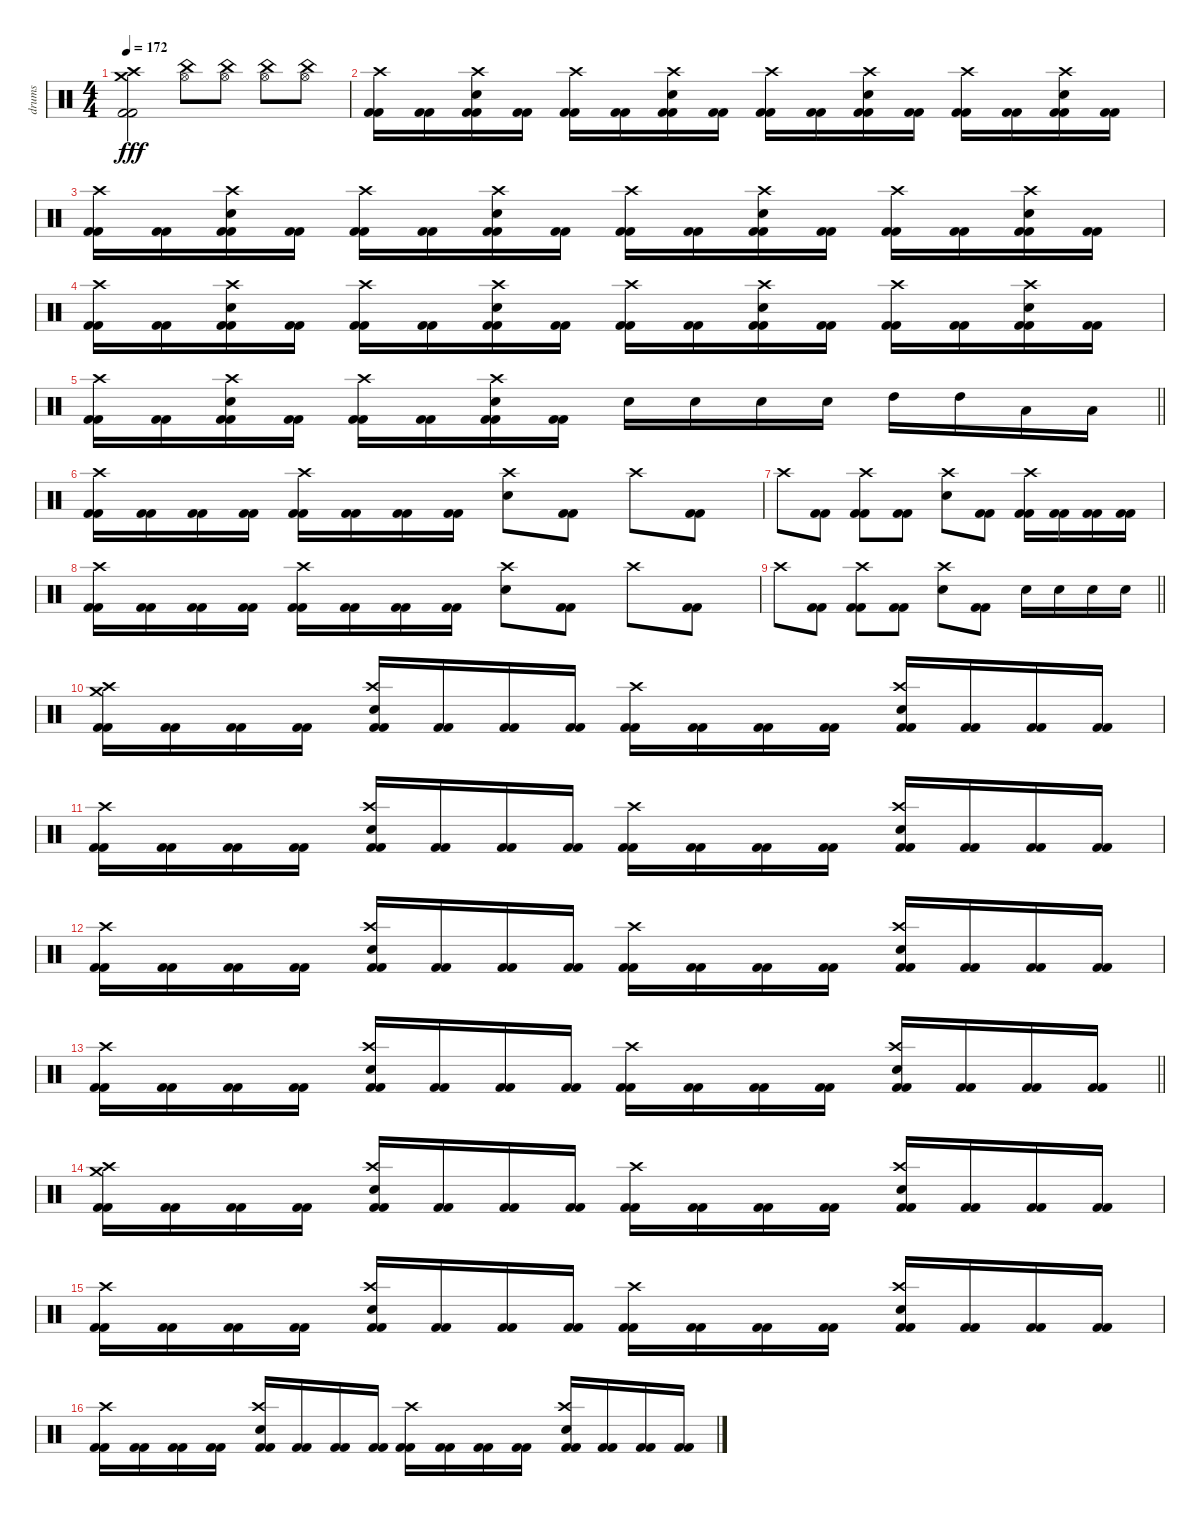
\track ("drums" "drums") {instrument percussion}
\staff {score}
\articulation defaults
\ts (4 4)
\tempo 172
\clef neutral
\ks c
("Kick (hit) 2" "Kick (hit) 2" "Crash medium (hit)" "Crash high (hit)").2{dy fff} ("Hi-Hat (open)" "China (hit)").8 ("Hi-Hat (open)" "China (hit)").8 ("Hi-Hat (open)" "China (hit)").8 ("Hi-Hat (open)" "China (hit)").8 |
("Kick (hit) 2" "Kick (hit) 2" "Crash high (hit)").16 ("Kick (hit) 2" "Kick (hit) 2").16 ("Kick (hit) 2" "Kick (hit) 2" "Electric Snare (hit)" "Crash high (hit)").16 ("Kick (hit) 2" "Kick (hit) 2").16 ("Kick (hit) 2" "Kick (hit) 2" "Crash high (hit)").16 ("Kick (hit) 2" "Kick (hit) 2").16 ("Kick (hit) 2" "Kick (hit) 2" "Electric Snare (hit)" "Crash high (hit)").16 ("Kick (hit) 2" "Kick (hit) 2").16 ("Kick (hit) 2" "Kick (hit) 2" "Crash high (hit)").16 ("Kick (hit) 2" "Kick (hit) 2").16 ("Kick (hit) 2" "Kick (hit) 2" "Electric Snare (hit)" "Crash high (hit)").16 ("Kick (hit) 2" "Kick (hit) 2").16 ("Kick (hit) 2" "Kick (hit) 2" "Crash high (hit)").16 ("Kick (hit) 2" "Kick (hit) 2").16 ("Kick (hit) 2" "Kick (hit) 2" "Electric Snare (hit)" "Crash high (hit)").16 ("Kick (hit) 2" "Kick (hit) 2").16 |
("Kick (hit) 2" "Kick (hit) 2" "Crash high (hit)").16 ("Kick (hit) 2" "Kick (hit) 2").16 ("Kick (hit) 2" "Kick (hit) 2" "Electric Snare (hit)" "Crash high (hit)").16 ("Kick (hit) 2" "Kick (hit) 2").16 ("Kick (hit) 2" "Kick (hit) 2" "Crash high (hit)").16 ("Kick (hit) 2" "Kick (hit) 2").16 ("Kick (hit) 2" "Kick (hit) 2" "Electric Snare (hit)" "Crash high (hit)").16 ("Kick (hit) 2" "Kick (hit) 2").16 ("Kick (hit) 2" "Kick (hit) 2" "Crash high (hit)").16 ("Kick (hit) 2" "Kick (hit) 2").16 ("Kick (hit) 2" "Kick (hit) 2" "Electric Snare (hit)" "Crash high (hit)").16 ("Kick (hit) 2" "Kick (hit) 2").16 ("Kick (hit) 2" "Kick (hit) 2" "Crash high (hit)").16 ("Kick (hit) 2" "Kick (hit) 2").16 ("Kick (hit) 2" "Kick (hit) 2" "Electric Snare (hit)" "Crash high (hit)").16 ("Kick (hit) 2" "Kick (hit) 2").16 |
("Kick (hit) 2" "Kick (hit) 2" "Crash high (hit)").16 ("Kick (hit) 2" "Kick (hit) 2").16 ("Kick (hit) 2" "Kick (hit) 2" "Electric Snare (hit)" "Crash high (hit)").16 ("Kick (hit) 2" "Kick (hit) 2").16 ("Kick (hit) 2" "Kick (hit) 2" "Crash high (hit)").16 ("Kick (hit) 2" "Kick (hit) 2").16 ("Kick (hit) 2" "Kick (hit) 2" "Electric Snare (hit)" "Crash high (hit)").16 ("Kick (hit) 2" "Kick (hit) 2").16 ("Kick (hit) 2" "Kick (hit) 2" "Crash high (hit)").16 ("Kick (hit) 2" "Kick (hit) 2").16 ("Kick (hit) 2" "Kick (hit) 2" "Electric Snare (hit)" "Crash high (hit)").16 ("Kick (hit) 2" "Kick (hit) 2").16 ("Kick (hit) 2" "Kick (hit) 2" "Crash high (hit)").16 ("Kick (hit) 2" "Kick (hit) 2").16 ("Kick (hit) 2" "Kick (hit) 2" "Electric Snare (hit)" "Crash high (hit)").16 ("Kick (hit) 2" "Kick (hit) 2").16 |
\barLineRight lightlight
("Kick (hit) 2" "Kick (hit) 2" "Crash high (hit)").16 ("Kick (hit) 2" "Kick (hit) 2").16 ("Kick (hit) 2" "Kick (hit) 2" "Electric Snare (hit)" "Crash high (hit)").16 ("Kick (hit) 2" "Kick (hit) 2").16 ("Kick (hit) 2" "Kick (hit) 2" "Crash high (hit)").16 ("Kick (hit) 2" "Kick (hit) 2").16 ("Kick (hit) 2" "Kick (hit) 2" "Electric Snare (hit)" "Crash high (hit)").16 ("Kick (hit) 2" "Kick (hit) 2").16 "Electric Snare (hit)".16 "Electric Snare (hit)".16 "Electric Snare (hit)".16 "Electric Snare (hit)".16 "High Tom (hit)".16 "High Tom (hit)".16 "Low Floor Tom (hit)".16 "Low Floor Tom (hit)".16 |
("Kick (hit) 2" "Kick (hit) 2" "Crash high (hit)").16 ("Kick (hit) 2" "Kick (hit) 2").16 ("Kick (hit) 2" "Kick (hit) 2").16 ("Kick (hit) 2" "Kick (hit) 2").16 ("Kick (hit) 2" "Kick (hit) 2" "Crash high (hit)").16 ("Kick (hit) 2" "Kick (hit) 2").16 ("Kick (hit) 2" "Kick (hit) 2").16 ("Kick (hit) 2" "Kick (hit) 2").16 ("Electric Snare (hit)" "Crash high (hit)").8 ("Kick (hit) 2" "Kick (hit) 2").8 "Crash high (hit)".8 ("Kick (hit) 2" "Kick (hit) 2").8 |
"Crash high (hit)".8 ("Kick (hit) 2" "Kick (hit) 2").8 ("Kick (hit) 2" "Kick (hit) 2" "Crash high (hit)").8 ("Kick (hit) 2" "Kick (hit) 2").8 ("Electric Snare (hit)" "Crash high (hit)").8 ("Kick (hit) 2" "Kick (hit) 2").8 ("Kick (hit) 2" "Kick (hit) 2" "Crash high (hit)").16 ("Kick (hit) 2" "Kick (hit) 2").16 ("Kick (hit) 2" "Kick (hit) 2").16 ("Kick (hit) 2" "Kick (hit) 2").16 |
("Kick (hit) 2" "Kick (hit) 2" "Crash high (hit)").16 ("Kick (hit) 2" "Kick (hit) 2").16 ("Kick (hit) 2" "Kick (hit) 2").16 ("Kick (hit) 2" "Kick (hit) 2").16 ("Kick (hit) 2" "Kick (hit) 2" "Crash high (hit)").16 ("Kick (hit) 2" "Kick (hit) 2").16 ("Kick (hit) 2" "Kick (hit) 2").16 ("Kick (hit) 2" "Kick (hit) 2").16 ("Electric Snare (hit)" "Crash high (hit)").8 ("Kick (hit) 2" "Kick (hit) 2").8 "Crash high (hit)".8 ("Kick (hit) 2" "Kick (hit) 2").8 |
\barLineRight lightlight "Crash high (hit)".8
("Kick (hit) 2" "Kick (hit) 2").8 ("Kick (hit) 2" "Kick (hit) 2" "Crash high (hit)").8 ("Kick (hit) 2" "Kick (hit) 2").8 ("Electric Snare (hit)" "Crash high (hit)").8 ("Kick (hit) 2" "Kick (hit) 2").8 "Electric Snare (hit)".16 "Electric Snare (hit)".16 "Electric Snare (hit)".16 "Electric Snare (hit)".16 |
("Kick (hit) 2" "Kick (hit) 2" "Crash medium (hit)" "Crash high (hit)").16 ("Kick (hit) 2" "Kick (hit) 2").16 ("Kick (hit) 2" "Kick (hit) 2").16 ("Kick (hit) 2" "Kick (hit) 2").16 ("Kick (hit) 2" "Kick (hit) 2" "Electric Snare (hit)" "Crash high (hit)").16 ("Kick (hit) 2" "Kick (hit) 2").16 ("Kick (hit) 2" "Kick (hit) 2").16 ("Kick (hit) 2" "Kick (hit) 2").16 ("Kick (hit) 2" "Kick (hit) 2" "Crash high (hit)").16 ("Kick (hit) 2" "Kick (hit) 2").16 ("Kick (hit) 2" "Kick (hit) 2").16 ("Kick (hit) 2" "Kick (hit) 2").16 ("Kick (hit) 2" "Kick (hit) 2" "Electric Snare (hit)" "Crash high (hit)").16 ("Kick (hit) 2" "Kick (hit) 2").16 ("Kick (hit) 2" "Kick (hit) 2").16 ("Kick (hit) 2" "Kick (hit) 2").16 |
("Kick (hit) 2" "Kick (hit) 2" "Crash high (hit)").16 ("Kick (hit) 2" "Kick (hit) 2").16 ("Kick (hit) 2" "Kick (hit) 2").16 ("Kick (hit) 2" "Kick (hit) 2").16 ("Kick (hit) 2" "Kick (hit) 2" "Electric Snare (hit)" "Crash high (hit)").16 ("Kick (hit) 2" "Kick (hit) 2").16 ("Kick (hit) 2" "Kick (hit) 2").16 ("Kick (hit) 2" "Kick (hit) 2").16 ("Kick (hit) 2" "Kick (hit) 2" "Crash high (hit)").16 ("Kick (hit) 2" "Kick (hit) 2").16 ("Kick (hit) 2" "Kick (hit) 2").16 ("Kick (hit) 2" "Kick (hit) 2").16 ("Kick (hit) 2" "Kick (hit) 2" "Electric Snare (hit)" "Crash high (hit)").16 ("Kick (hit) 2" "Kick (hit) 2").16 ("Kick (hit) 2" "Kick (hit) 2").16 ("Kick (hit) 2" "Kick (hit) 2").16 |
("Kick (hit) 2" "Kick (hit) 2" "Crash high (hit)").16 ("Kick (hit) 2" "Kick (hit) 2").16 ("Kick (hit) 2" "Kick (hit) 2").16 ("Kick (hit) 2" "Kick (hit) 2").16 ("Kick (hit) 2" "Kick (hit) 2" "Electric Snare (hit)" "Crash high (hit)").16 ("Kick (hit) 2" "Kick (hit) 2").16 ("Kick (hit) 2" "Kick (hit) 2").16 ("Kick (hit) 2" "Kick (hit) 2").16 ("Kick (hit) 2" "Kick (hit) 2" "Crash high (hit)").16 ("Kick (hit) 2" "Kick (hit) 2").16 ("Kick (hit) 2" "Kick (hit) 2").16 ("Kick (hit) 2" "Kick (hit) 2").16 ("Kick (hit) 2" "Kick (hit) 2" "Electric Snare (hit)" "Crash high (hit)").16 ("Kick (hit) 2" "Kick (hit) 2").16 ("Kick (hit) 2" "Kick (hit) 2").16 ("Kick (hit) 2" "Kick (hit) 2").16 |
\barLineRight lightlight
("Kick (hit) 2" "Kick (hit) 2" "Crash high (hit)").16 ("Kick (hit) 2" "Kick (hit) 2").16 ("Kick (hit) 2" "Kick (hit) 2").16 ("Kick (hit) 2" "Kick (hit) 2").16 ("Kick (hit) 2" "Kick (hit) 2" "Electric Snare (hit)" "Crash high (hit)").16 ("Kick (hit) 2" "Kick (hit) 2").16 ("Kick (hit) 2" "Kick (hit) 2").16 ("Kick (hit) 2" "Kick (hit) 2").16 ("Kick (hit) 2" "Kick (hit) 2" "Crash high (hit)").16 ("Kick (hit) 2" "Kick (hit) 2").16 ("Kick (hit) 2" "Kick (hit) 2").16 ("Kick (hit) 2" "Kick (hit) 2").16 ("Kick (hit) 2" "Kick (hit) 2" "Electric Snare (hit)" "Crash high (hit)").16 ("Kick (hit) 2" "Kick (hit) 2").16 ("Kick (hit) 2" "Kick (hit) 2").16 ("Kick (hit) 2" "Kick (hit) 2").16 |
("Kick (hit) 2" "Kick (hit) 2" "Crash medium (hit)" "Crash high (hit)").16 ("Kick (hit) 2" "Kick (hit) 2").16 ("Kick (hit) 2" "Kick (hit) 2").16 ("Kick (hit) 2" "Kick (hit) 2").16 ("Kick (hit) 2" "Kick (hit) 2" "Electric Snare (hit)" "Crash high (hit)").16 ("Kick (hit) 2" "Kick (hit) 2").16 ("Kick (hit) 2" "Kick (hit) 2").16 ("Kick (hit) 2" "Kick (hit) 2").16 ("Kick (hit) 2" "Kick (hit) 2" "Crash high (hit)").16 ("Kick (hit) 2" "Kick (hit) 2").16 ("Kick (hit) 2" "Kick (hit) 2").16 ("Kick (hit) 2" "Kick (hit) 2").16 ("Kick (hit) 2" "Kick (hit) 2" "Electric Snare (hit)" "Crash high (hit)").16 ("Kick (hit) 2" "Kick (hit) 2").16 ("Kick (hit) 2" "Kick (hit) 2").16 ("Kick (hit) 2" "Kick (hit) 2").16 |
("Kick (hit) 2" "Kick (hit) 2" "Crash high (hit)").16 ("Kick (hit) 2" "Kick (hit) 2").16 ("Kick (hit) 2" "Kick (hit) 2").16 ("Kick (hit) 2" "Kick (hit) 2").16 ("Kick (hit) 2" "Kick (hit) 2" "Electric Snare (hit)" "Crash high (hit)").16 ("Kick (hit) 2" "Kick (hit) 2").16 ("Kick (hit) 2" "Kick (hit) 2").16 ("Kick (hit) 2" "Kick (hit) 2").16 ("Kick (hit) 2" "Kick (hit) 2" "Crash high (hit)").16 ("Kick (hit) 2" "Kick (hit) 2").16 ("Kick (hit) 2" "Kick (hit) 2").16 ("Kick (hit) 2" "Kick (hit) 2").16 ("Kick (hit) 2" "Kick (hit) 2" "Electric Snare (hit)" "Crash high (hit)").16 ("Kick (hit) 2" "Kick (hit) 2").16 ("Kick (hit) 2" "Kick (hit) 2").16 ("Kick (hit) 2" "Kick (hit) 2").16 |
("Kick (hit) 2" "Kick (hit) 2" "Crash high (hit)").16 ("Kick (hit) 2" "Kick (hit) 2").16 ("Kick (hit) 2" "Kick (hit) 2").16 ("Kick (hit) 2" "Kick (hit) 2").16 ("Kick (hit) 2" "Kick (hit) 2" "Electric Snare (hit)" "Crash high (hit)").16 ("Kick (hit) 2" "Kick (hit) 2").16 ("Kick (hit) 2" "Kick (hit) 2").16 ("Kick (hit) 2" "Kick (hit) 2").16 ("Kick (hit) 2" "Kick (hit) 2" "Crash high (hit)").16 ("Kick (hit) 2" "Kick (hit) 2").16 ("Kick (hit) 2" "Kick (hit) 2").16 ("Kick (hit) 2" "Kick (hit) 2").16 ("Kick (hit) 2" "Kick (hit) 2" "Electric Snare (hit)" "Crash high (hit)").16 ("Kick (hit) 2" "Kick (hit) 2").16 ("Kick (hit) 2" "Kick (hit) 2").16 ("Kick (hit) 2" "Kick (hit) 2").16
